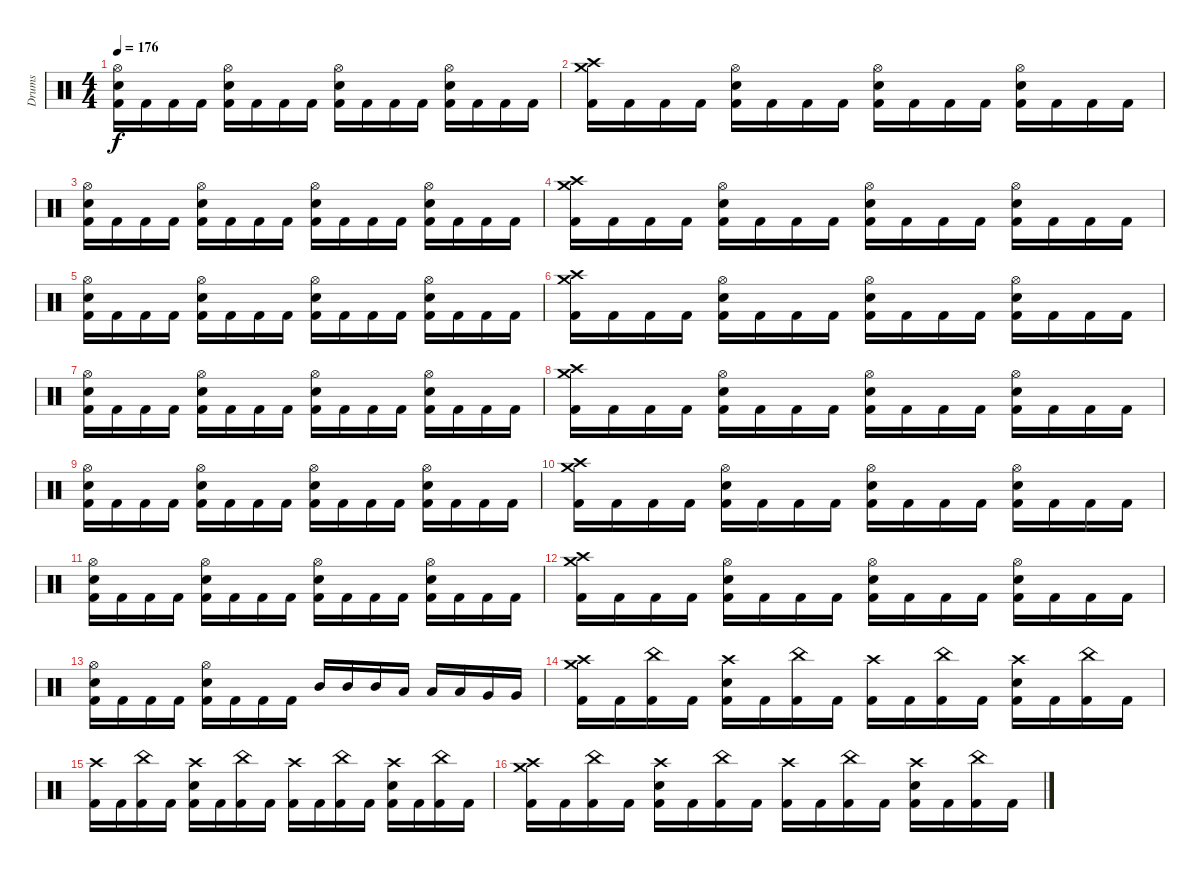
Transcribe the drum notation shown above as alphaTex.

\track ("Drums" "Drums") {instrument percussion}
\staff {score}
\articulation defaults
\ts (4 4)
\tempo 176
\clef neutral
\ks c
("Hi-Hat (open)" "Snare (hit) 2" "Kick (hit) 2").16{dy f} "Kick (hit) 2".16 "Kick (hit) 2".16 "Kick (hit) 2".16 ("Hi-Hat (open)" "Snare (hit) 2" "Kick (hit) 2").16 "Kick (hit) 2".16 "Kick (hit) 2".16 "Kick (hit) 2".16 ("Hi-Hat (open)" "Snare (hit) 2" "Kick (hit) 2").16 "Kick (hit) 2".16 "Kick (hit) 2".16 "Kick (hit) 2".16 ("Hi-Hat (open)" "Snare (hit) 2" "Kick (hit) 2").16 "Kick (hit) 2".16 "Kick (hit) 2".16 "Kick (hit) 2".16 |
("Crash medium (hit)" "Crash high (hit)" "Kick (hit) 2").16 "Kick (hit) 2".16 "Kick (hit) 2".16 "Kick (hit) 2".16 ("Hi-Hat (open)" "Snare (hit) 2" "Kick (hit) 2").16 "Kick (hit) 2".16 "Kick (hit) 2".16 "Kick (hit) 2".16 ("Hi-Hat (open)" "Snare (hit) 2" "Kick (hit) 2").16 "Kick (hit) 2".16 "Kick (hit) 2".16 "Kick (hit) 2".16 ("Hi-Hat (open)" "Snare (hit) 2" "Kick (hit) 2").16 "Kick (hit) 2".16 "Kick (hit) 2".16 "Kick (hit) 2".16 |
("Hi-Hat (open)" "Snare (hit) 2" "Kick (hit) 2").16 "Kick (hit) 2".16 "Kick (hit) 2".16 "Kick (hit) 2".16 ("Hi-Hat (open)" "Snare (hit) 2" "Kick (hit) 2").16 "Kick (hit) 2".16 "Kick (hit) 2".16 "Kick (hit) 2".16 ("Hi-Hat (open)" "Snare (hit) 2" "Kick (hit) 2").16 "Kick (hit) 2".16 "Kick (hit) 2".16 "Kick (hit) 2".16 ("Hi-Hat (open)" "Snare (hit) 2" "Kick (hit) 2").16 "Kick (hit) 2".16 "Kick (hit) 2".16 "Kick (hit) 2".16 |
("Crash medium (hit)" "Crash high (hit)" "Kick (hit) 2").16 "Kick (hit) 2".16 "Kick (hit) 2".16 "Kick (hit) 2".16 ("Hi-Hat (open)" "Snare (hit) 2" "Kick (hit) 2").16 "Kick (hit) 2".16 "Kick (hit) 2".16 "Kick (hit) 2".16 ("Hi-Hat (open)" "Snare (hit) 2" "Kick (hit) 2").16 "Kick (hit) 2".16 "Kick (hit) 2".16 "Kick (hit) 2".16 ("Hi-Hat (open)" "Snare (hit) 2" "Kick (hit) 2").16 "Kick (hit) 2".16 "Kick (hit) 2".16 "Kick (hit) 2".16 |
("Hi-Hat (open)" "Snare (hit) 2" "Kick (hit) 2").16 "Kick (hit) 2".16 "Kick (hit) 2".16 "Kick (hit) 2".16 ("Hi-Hat (open)" "Snare (hit) 2" "Kick (hit) 2").16 "Kick (hit) 2".16 "Kick (hit) 2".16 "Kick (hit) 2".16 ("Hi-Hat (open)" "Snare (hit) 2" "Kick (hit) 2").16 "Kick (hit) 2".16 "Kick (hit) 2".16 "Kick (hit) 2".16 ("Hi-Hat (open)" "Snare (hit) 2" "Kick (hit) 2").16 "Kick (hit) 2".16 "Kick (hit) 2".16 "Kick (hit) 2".16 |
("Crash medium (hit)" "Crash high (hit)" "Kick (hit) 2").16 "Kick (hit) 2".16 "Kick (hit) 2".16 "Kick (hit) 2".16 ("Hi-Hat (open)" "Snare (hit) 2" "Kick (hit) 2").16 "Kick (hit) 2".16 "Kick (hit) 2".16 "Kick (hit) 2".16 ("Hi-Hat (open)" "Snare (hit) 2" "Kick (hit) 2").16 "Kick (hit) 2".16 "Kick (hit) 2".16 "Kick (hit) 2".16 ("Hi-Hat (open)" "Snare (hit) 2" "Kick (hit) 2").16 "Kick (hit) 2".16 "Kick (hit) 2".16 "Kick (hit) 2".16 |
("Hi-Hat (open)" "Snare (hit) 2" "Kick (hit) 2").16 "Kick (hit) 2".16 "Kick (hit) 2".16 "Kick (hit) 2".16 ("Hi-Hat (open)" "Snare (hit) 2" "Kick (hit) 2").16 "Kick (hit) 2".16 "Kick (hit) 2".16 "Kick (hit) 2".16 ("Hi-Hat (open)" "Snare (hit) 2" "Kick (hit) 2").16 "Kick (hit) 2".16 "Kick (hit) 2".16 "Kick (hit) 2".16 ("Hi-Hat (open)" "Snare (hit) 2" "Kick (hit) 2").16 "Kick (hit) 2".16 "Kick (hit) 2".16 "Kick (hit) 2".16 |
("Crash medium (hit)" "Crash high (hit)" "Kick (hit) 2").16 "Kick (hit) 2".16 "Kick (hit) 2".16 "Kick (hit) 2".16 ("Hi-Hat (open)" "Snare (hit) 2" "Kick (hit) 2").16 "Kick (hit) 2".16 "Kick (hit) 2".16 "Kick (hit) 2".16 ("Hi-Hat (open)" "Snare (hit) 2" "Kick (hit) 2").16 "Kick (hit) 2".16 "Kick (hit) 2".16 "Kick (hit) 2".16 ("Hi-Hat (open)" "Snare (hit) 2" "Kick (hit) 2").16 "Kick (hit) 2".16 "Kick (hit) 2".16 "Kick (hit) 2".16 |
("Hi-Hat (open)" "Snare (hit) 2" "Kick (hit) 2").16 "Kick (hit) 2".16 "Kick (hit) 2".16 "Kick (hit) 2".16 ("Hi-Hat (open)" "Snare (hit) 2" "Kick (hit) 2").16 "Kick (hit) 2".16 "Kick (hit) 2".16 "Kick (hit) 2".16 ("Hi-Hat (open)" "Snare (hit) 2" "Kick (hit) 2").16 "Kick (hit) 2".16 "Kick (hit) 2".16 "Kick (hit) 2".16 ("Hi-Hat (open)" "Snare (hit) 2" "Kick (hit) 2").16 "Kick (hit) 2".16 "Kick (hit) 2".16 "Kick (hit) 2".16 |
("Crash medium (hit)" "Crash high (hit)" "Kick (hit) 2").16 "Kick (hit) 2".16 "Kick (hit) 2".16 "Kick (hit) 2".16 ("Hi-Hat (open)" "Snare (hit) 2" "Kick (hit) 2").16 "Kick (hit) 2".16 "Kick (hit) 2".16 "Kick (hit) 2".16 ("Hi-Hat (open)" "Snare (hit) 2" "Kick (hit) 2").16 "Kick (hit) 2".16 "Kick (hit) 2".16 "Kick (hit) 2".16 ("Hi-Hat (open)" "Snare (hit) 2" "Kick (hit) 2").16 "Kick (hit) 2".16 "Kick (hit) 2".16 "Kick (hit) 2".16 |
("Hi-Hat (open)" "Snare (hit) 2" "Kick (hit) 2").16 "Kick (hit) 2".16 "Kick (hit) 2".16 "Kick (hit) 2".16 ("Hi-Hat (open)" "Snare (hit) 2" "Kick (hit) 2").16 "Kick (hit) 2".16 "Kick (hit) 2".16 "Kick (hit) 2".16 ("Hi-Hat (open)" "Snare (hit) 2" "Kick (hit) 2").16 "Kick (hit) 2".16 "Kick (hit) 2".16 "Kick (hit) 2".16 ("Hi-Hat (open)" "Snare (hit) 2" "Kick (hit) 2").16 "Kick (hit) 2".16 "Kick (hit) 2".16 "Kick (hit) 2".16 |
("Crash medium (hit)" "Crash high (hit)" "Kick (hit) 2").16 "Kick (hit) 2".16 "Kick (hit) 2".16 "Kick (hit) 2".16 ("Hi-Hat (open)" "Snare (hit) 2" "Kick (hit) 2").16 "Kick (hit) 2".16 "Kick (hit) 2".16 "Kick (hit) 2".16 ("Hi-Hat (open)" "Snare (hit) 2" "Kick (hit) 2").16 "Kick (hit) 2".16 "Kick (hit) 2".16 "Kick (hit) 2".16 ("Hi-Hat (open)" "Snare (hit) 2" "Kick (hit) 2").16 "Kick (hit) 2".16 "Kick (hit) 2".16 "Kick (hit) 2".16 |
("Hi-Hat (open)" "Snare (hit) 2" "Kick (hit) 2").16 "Kick (hit) 2".16 "Kick (hit) 2".16 "Kick (hit) 2".16 ("Hi-Hat (open)" "Snare (hit) 2" "Kick (hit) 2").16 "Kick (hit) 2".16 "Kick (hit) 2".16 "Kick (hit) 2".16 "Mid Tom (hit)".16 "Mid Tom (hit)".16 "Mid Tom (hit)".16 "Low Tom (hit)".16 "Low Tom (hit)".16 "Low Tom (hit)".16 "Very Low Tom (hit)".16 "Very Low Tom (hit)".16 |
("Crash medium (hit)" "Crash high (hit)" "Kick (hit) 2").16 "Kick (hit) 2".16 ("China (hit)" "Kick (hit) 2").16 "Kick (hit) 2".16 ("Crash high (hit)" "Snare (hit) 2" "Kick (hit) 2").16 "Kick (hit) 2".16 ("China (hit)" "Kick (hit) 2").16 "Kick (hit) 2".16 ("Crash high (hit)" "Kick (hit) 2").16 "Kick (hit) 2".16 ("China (hit)" "Kick (hit) 2").16 "Kick (hit) 2".16 ("Crash high (hit)" "Snare (hit) 2" "Kick (hit) 2").16 "Kick (hit) 2".16 ("China (hit)" "Kick (hit) 2").16 "Kick (hit) 2".16 |
("Crash high (hit)" "Kick (hit) 2").16 "Kick (hit) 2".16 ("China (hit)" "Kick (hit) 2").16 "Kick (hit) 2".16 ("Crash high (hit)" "Snare (hit) 2" "Kick (hit) 2").16 "Kick (hit) 2".16 ("China (hit)" "Kick (hit) 2").16 "Kick (hit) 2".16 ("Crash high (hit)" "Kick (hit) 2").16 "Kick (hit) 2".16 ("China (hit)" "Kick (hit) 2").16 "Kick (hit) 2".16 ("Crash high (hit)" "Snare (hit) 2" "Kick (hit) 2").16 "Kick (hit) 2".16 ("China (hit)" "Kick (hit) 2").16 "Kick (hit) 2".16 |
("Crash medium (hit)" "Crash high (hit)" "Kick (hit) 2").16 "Kick (hit) 2".16 ("China (hit)" "Kick (hit) 2").16 "Kick (hit) 2".16 ("Crash high (hit)" "Snare (hit) 2" "Kick (hit) 2").16 "Kick (hit) 2".16 ("China (hit)" "Kick (hit) 2").16 "Kick (hit) 2".16 ("Crash high (hit)" "Kick (hit) 2").16 "Kick (hit) 2".16 ("China (hit)" "Kick (hit) 2").16 "Kick (hit) 2".16 ("Crash high (hit)" "Snare (hit) 2" "Kick (hit) 2").16 "Kick (hit) 2".16 ("China (hit)" "Kick (hit) 2").16 "Kick (hit) 2".16
